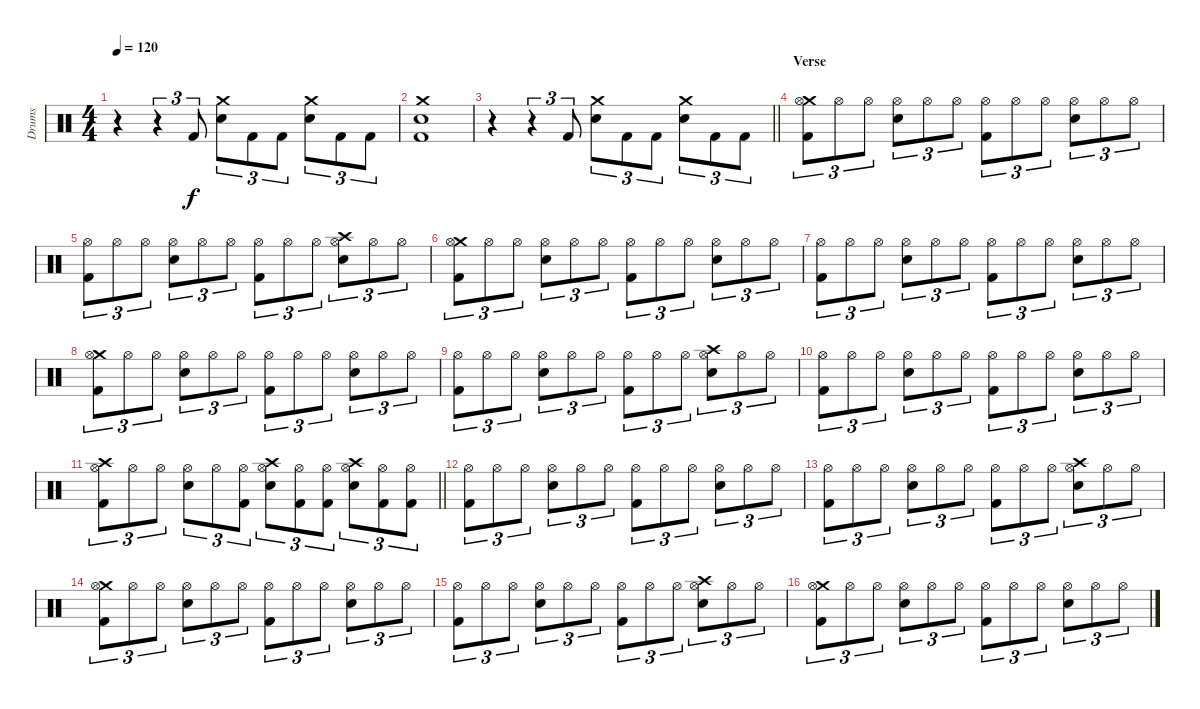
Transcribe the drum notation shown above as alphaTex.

\track ("Drums" "Drums") {instrument percussion}
\staff {score}
\articulation defaults
\ts (4 4)
\tempo 120
\clef neutral
\ks c
r.4{dy f} r.4{tu (3 2)} "Kick (hit) 2".8{tu (3 2)} ("Crash medium (hit)" "Snare (hit) 2").8{tu (3 2)} "Kick (hit) 2".8{tu (3 2)} "Kick (hit) 2".8{tu (3 2)} ("Crash medium (hit)" "Snare (hit) 2").8{tu (3 2)} "Kick (hit) 2".8{tu (3 2)} "Kick (hit) 2".8{tu (3 2)} |
("Crash medium (hit)" "Snare (hit) 2" "Kick (hit) 2").1 |
\barLineRight lightlight
r.4 r.4{tu (3 2)} "Kick (hit) 2".8{tu (3 2)} ("Crash medium (hit)" "Snare (hit) 2").8{tu (3 2)} "Kick (hit) 2".8{tu (3 2)} "Kick (hit) 2".8{tu (3 2)} ("Crash medium (hit)" "Snare (hit) 2").8{tu (3 2)} "Kick (hit) 2".8{tu (3 2)} "Kick (hit) 2".8{tu (3 2)} |
\section ("" "Verse")
("Crash medium (hit)" "Hi-Hat (open)" "Kick (hit) 2").8{tu (3 2)} "Hi-Hat (open)".8{tu (3 2)} "Hi-Hat (open)".8{tu (3 2)} ("Hi-Hat (open)" "Snare (hit) 2").8{tu (3 2)} "Hi-Hat (open)".8{tu (3 2)} "Hi-Hat (open)".8{tu (3 2)} ("Hi-Hat (open)" "Kick (hit) 2").8{tu (3 2)} "Hi-Hat (open)".8{tu (3 2)} "Hi-Hat (open)".8{tu (3 2)} ("Hi-Hat (open)" "Snare (hit) 2").8{tu (3 2)} "Hi-Hat (open)".8{tu (3 2)} "Hi-Hat (open)".8{tu (3 2)} |
("Hi-Hat (open)" "Kick (hit) 2").8{tu (3 2)} "Hi-Hat (open)".8{tu (3 2)} "Hi-Hat (open)".8{tu (3 2)} ("Hi-Hat (open)" "Snare (hit) 2").8{tu (3 2)} "Hi-Hat (open)".8{tu (3 2)} "Hi-Hat (open)".8{tu (3 2)} ("Hi-Hat (open)" "Kick (hit) 2").8{tu (3 2)} "Hi-Hat (open)".8{tu (3 2)} "Hi-Hat (open)".8{tu (3 2)} ("Crash high (hit)" "Hi-Hat (open)" "Snare (hit) 2").8{tu (3 2)} "Hi-Hat (open)".8{tu (3 2)} "Hi-Hat (open)".8{tu (3 2)} |
("Crash medium (hit)" "Hi-Hat (open)" "Kick (hit) 2").8{tu (3 2)} "Hi-Hat (open)".8{tu (3 2)} "Hi-Hat (open)".8{tu (3 2)} ("Hi-Hat (open)" "Snare (hit) 2").8{tu (3 2)} "Hi-Hat (open)".8{tu (3 2)} "Hi-Hat (open)".8{tu (3 2)} ("Hi-Hat (open)" "Kick (hit) 2").8{tu (3 2)} "Hi-Hat (open)".8{tu (3 2)} "Hi-Hat (open)".8{tu (3 2)} ("Hi-Hat (open)" "Snare (hit) 2").8{tu (3 2)} "Hi-Hat (open)".8{tu (3 2)} "Hi-Hat (open)".8{tu (3 2)} |
("Hi-Hat (open)" "Kick (hit) 2").8{tu (3 2)} "Hi-Hat (open)".8{tu (3 2)} "Hi-Hat (open)".8{tu (3 2)} ("Hi-Hat (open)" "Snare (hit) 2").8{tu (3 2)} "Hi-Hat (open)".8{tu (3 2)} "Hi-Hat (open)".8{tu (3 2)} ("Hi-Hat (open)" "Kick (hit) 2").8{tu (3 2)} "Hi-Hat (open)".8{tu (3 2)} "Hi-Hat (open)".8{tu (3 2)} ("Hi-Hat (open)" "Snare (hit) 2").8{tu (3 2)} "Hi-Hat (open)".8{tu (3 2)} "Hi-Hat (open)".8{tu (3 2)} |
("Crash medium (hit)" "Hi-Hat (open)" "Kick (hit) 2").8{tu (3 2)} "Hi-Hat (open)".8{tu (3 2)} "Hi-Hat (open)".8{tu (3 2)} ("Hi-Hat (open)" "Snare (hit) 2").8{tu (3 2)} "Hi-Hat (open)".8{tu (3 2)} "Hi-Hat (open)".8{tu (3 2)} ("Hi-Hat (open)" "Kick (hit) 2").8{tu (3 2)} "Hi-Hat (open)".8{tu (3 2)} "Hi-Hat (open)".8{tu (3 2)} ("Hi-Hat (open)" "Snare (hit) 2").8{tu (3 2)} "Hi-Hat (open)".8{tu (3 2)} "Hi-Hat (open)".8{tu (3 2)} |
("Hi-Hat (open)" "Kick (hit) 2").8{tu (3 2)} "Hi-Hat (open)".8{tu (3 2)} "Hi-Hat (open)".8{tu (3 2)} ("Hi-Hat (open)" "Snare (hit) 2").8{tu (3 2)} "Hi-Hat (open)".8{tu (3 2)} "Hi-Hat (open)".8{tu (3 2)} ("Hi-Hat (open)" "Kick (hit) 2").8{tu (3 2)} "Hi-Hat (open)".8{tu (3 2)} "Hi-Hat (open)".8{tu (3 2)} ("Crash high (hit)" "Hi-Hat (open)" "Snare (hit) 2").8{tu (3 2)} "Hi-Hat (open)".8{tu (3 2)} "Hi-Hat (open)".8{tu (3 2)} |
("Hi-Hat (open)" "Kick (hit) 2").8{tu (3 2)} "Hi-Hat (open)".8{tu (3 2)} "Hi-Hat (open)".8{tu (3 2)} ("Hi-Hat (open)" "Snare (hit) 2").8{tu (3 2)} "Hi-Hat (open)".8{tu (3 2)} "Hi-Hat (open)".8{tu (3 2)} ("Hi-Hat (open)" "Kick (hit) 2").8{tu (3 2)} "Hi-Hat (open)".8{tu (3 2)} "Hi-Hat (open)".8{tu (3 2)} ("Hi-Hat (open)" "Snare (hit) 2").8{tu (3 2)} "Hi-Hat (open)".8{tu (3 2)} "Hi-Hat (open)".8{tu (3 2)} |
\barLineRight lightlight
("Crash high (hit)" "Hi-Hat (open)" "Kick (hit) 2").8{tu (3 2)} "Hi-Hat (open)".8{tu (3 2)} "Hi-Hat (open)".8{tu (3 2)} ("Hi-Hat (open)" "Snare (hit) 2").8{tu (3 2)} "Hi-Hat (open)".8{tu (3 2)} ("Hi-Hat (open)" "Kick (hit) 2").8{tu (3 2)} ("Crash high (hit)" "Hi-Hat (open)" "Snare (hit) 2").8{tu (3 2)} ("Hi-Hat (open)" "Kick (hit) 2").8{tu (3 2)} ("Hi-Hat (open)" "Kick (hit) 2").8{tu (3 2)} ("Crash high (hit)" "Hi-Hat (open)" "Snare (hit) 2").8{tu (3 2)} ("Hi-Hat (open)" "Kick (hit) 2").8{tu (3 2)} ("Hi-Hat (open)" "Kick (hit) 2").8{tu (3 2)} |
("Hi-Hat (open)" "Kick (hit) 2").8{tu (3 2)} "Hi-Hat (open)".8{tu (3 2)} "Hi-Hat (open)".8{tu (3 2)} ("Hi-Hat (open)" "Snare (hit) 2").8{tu (3 2)} "Hi-Hat (open)".8{tu (3 2)} "Hi-Hat (open)".8{tu (3 2)} ("Hi-Hat (open)" "Kick (hit) 2").8{tu (3 2)} "Hi-Hat (open)".8{tu (3 2)} "Hi-Hat (open)".8{tu (3 2)} ("Hi-Hat (open)" "Snare (hit) 2").8{tu (3 2)} "Hi-Hat (open)".8{tu (3 2)} "Hi-Hat (open)".8{tu (3 2)} |
("Hi-Hat (open)" "Kick (hit) 2").8{tu (3 2)} "Hi-Hat (open)".8{tu (3 2)} "Hi-Hat (open)".8{tu (3 2)} ("Hi-Hat (open)" "Snare (hit) 2").8{tu (3 2)} "Hi-Hat (open)".8{tu (3 2)} "Hi-Hat (open)".8{tu (3 2)} ("Hi-Hat (open)" "Kick (hit) 2").8{tu (3 2)} "Hi-Hat (open)".8{tu (3 2)} "Hi-Hat (open)".8{tu (3 2)} ("Crash high (hit)" "Hi-Hat (open)" "Snare (hit) 2").8{tu (3 2)} "Hi-Hat (open)".8{tu (3 2)} "Hi-Hat (open)".8{tu (3 2)} |
("Crash medium (hit)" "Hi-Hat (open)" "Kick (hit) 2").8{tu (3 2)} "Hi-Hat (open)".8{tu (3 2)} "Hi-Hat (open)".8{tu (3 2)} ("Hi-Hat (open)" "Snare (hit) 2").8{tu (3 2)} "Hi-Hat (open)".8{tu (3 2)} "Hi-Hat (open)".8{tu (3 2)} ("Hi-Hat (open)" "Kick (hit) 2").8{tu (3 2)} "Hi-Hat (open)".8{tu (3 2)} "Hi-Hat (open)".8{tu (3 2)} ("Hi-Hat (open)" "Snare (hit) 2").8{tu (3 2)} "Hi-Hat (open)".8{tu (3 2)} "Hi-Hat (open)".8{tu (3 2)} |
("Hi-Hat (open)" "Kick (hit) 2").8{tu (3 2)} "Hi-Hat (open)".8{tu (3 2)} "Hi-Hat (open)".8{tu (3 2)} ("Hi-Hat (open)" "Snare (hit) 2").8{tu (3 2)} "Hi-Hat (open)".8{tu (3 2)} "Hi-Hat (open)".8{tu (3 2)} ("Hi-Hat (open)" "Kick (hit) 2").8{tu (3 2)} "Hi-Hat (open)".8{tu (3 2)} "Hi-Hat (open)".8{tu (3 2)} ("Crash high (hit)" "Hi-Hat (open)" "Snare (hit) 2").8{tu (3 2)} "Hi-Hat (open)".8{tu (3 2)} "Hi-Hat (open)".8{tu (3 2)} |
("Crash medium (hit)" "Hi-Hat (open)" "Kick (hit) 2").8{tu (3 2)} "Hi-Hat (open)".8{tu (3 2)} "Hi-Hat (open)".8{tu (3 2)} ("Hi-Hat (open)" "Snare (hit) 2").8{tu (3 2)} "Hi-Hat (open)".8{tu (3 2)} "Hi-Hat (open)".8{tu (3 2)} ("Hi-Hat (open)" "Kick (hit) 2").8{tu (3 2)} "Hi-Hat (open)".8{tu (3 2)} "Hi-Hat (open)".8{tu (3 2)} ("Hi-Hat (open)" "Snare (hit) 2").8{tu (3 2)} "Hi-Hat (open)".8{tu (3 2)} "Hi-Hat (open)".8{tu (3 2)}
